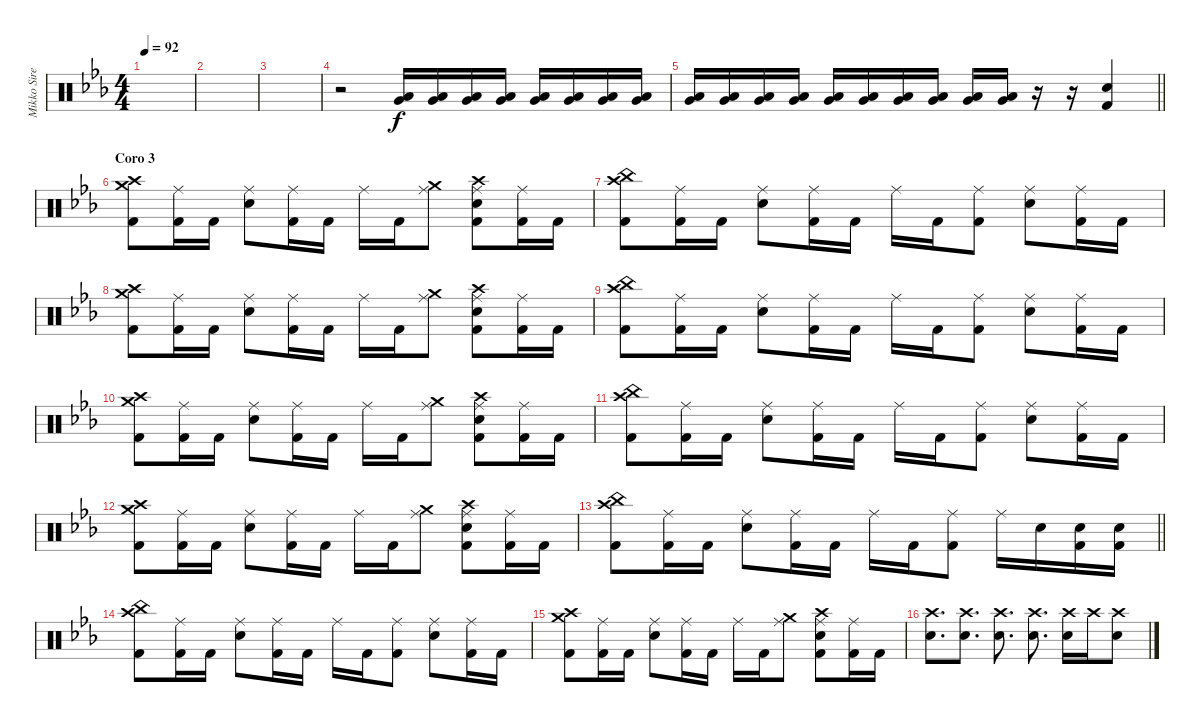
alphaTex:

\track ("Mikko Siren" "Mikko Sire") {instrument percussion}
\staff {score}
\articulation defaults
\ts (4 4)
\tempo 92
\clef neutral
\ks cminor
|
|
|
r.2 ("Very Low Tom (hit)" "Low Floor Tom (hit)").16{volume 9} ("Very Low Tom (hit)" "Low Floor Tom (hit)").16{volume 13} ("Very Low Tom (hit)" "Low Floor Tom (hit)").16 ("Very Low Tom (hit)" "Low Floor Tom (hit)").16 ("Very Low Tom (hit)" "Low Floor Tom (hit)").16 ("Very Low Tom (hit)" "Low Floor Tom (hit)").16 ("Very Low Tom (hit)" "Low Floor Tom (hit)").16 ("Very Low Tom (hit)" "Low Floor Tom (hit)").16 |
\barLineRight lightlight
("Very Low Tom (hit)" "Low Floor Tom (hit)").16 ("Very Low Tom (hit)" "Low Floor Tom (hit)").16 ("Very Low Tom (hit)" "Low Floor Tom (hit)").16 ("Very Low Tom (hit)" "Low Floor Tom (hit)").16 ("Very Low Tom (hit)" "Low Floor Tom (hit)").16 ("Very Low Tom (hit)" "Low Floor Tom (hit)").16 ("Very Low Tom (hit)" "Low Floor Tom (hit)").16 ("Very Low Tom (hit)" "Low Floor Tom (hit)").16 ("Very Low Tom (hit)" "Low Floor Tom (hit)").16 ("Very Low Tom (hit)" "Low Floor Tom (hit)").16 r.16 r.16 ("Snare (hit) 2" "Kick (hit) 2").4 |
\section ("" "Coro 3")
("Crash high (hit)" "Crash medium (hit)" "Kick (hit) 2").8 ("Ride (middle)" "Kick (hit) 2").16 "Kick (hit) 2".16 ("Ride (middle)" "Snare (hit) 2").8 ("Ride (middle)" "Kick (hit) 2").16 "Kick (hit) 2".16 "Ride (middle)".16 "Kick (hit) 2".16 ("Ride (middle)" "Crash medium (hit)").8 ("Ride (middle)" "Crash high (hit)" "Snare (hit) 2" "Kick (hit) 2").8 ("Ride (middle)" "Kick (hit) 2").16 "Kick (hit) 2".16 |
("Crash high (hit)" "China (hit)" "Kick (hit) 2").8 ("Ride (middle)" "Kick (hit) 2").16 "Kick (hit) 2".16 ("Ride (middle)" "Snare (hit) 2").8 ("Ride (middle)" "Kick (hit) 2").16 "Kick (hit) 2".16 "Ride (middle)".16 "Kick (hit) 2".16 ("Ride (middle)" "Kick (hit) 2").8 ("Ride (middle)" "Snare (hit) 2").8 ("Ride (middle)" "Kick (hit) 2").16 "Kick (hit) 2".16 |
("Crash high (hit)" "Crash medium (hit)" "Kick (hit) 2").8 ("Ride (middle)" "Kick (hit) 2").16 "Kick (hit) 2".16 ("Ride (middle)" "Snare (hit) 2").8 ("Ride (middle)" "Kick (hit) 2").16 "Kick (hit) 2".16 "Ride (middle)".16 "Kick (hit) 2".16 ("Ride (middle)" "Crash medium (hit)").8 ("Ride (middle)" "Crash high (hit)" "Snare (hit) 2" "Kick (hit) 2").8 ("Ride (middle)" "Kick (hit) 2").16 "Kick (hit) 2".16 |
("Crash high (hit)" "China (hit)" "Kick (hit) 2").8 ("Ride (middle)" "Kick (hit) 2").16 "Kick (hit) 2".16 ("Ride (middle)" "Snare (hit) 2").8 ("Ride (middle)" "Kick (hit) 2").16 "Kick (hit) 2".16 "Ride (middle)".16 "Kick (hit) 2".16 ("Ride (middle)" "Kick (hit) 2").8 ("Ride (middle)" "Snare (hit) 2").8 ("Ride (middle)" "Kick (hit) 2").16 "Kick (hit) 2".16 |
("Crash high (hit)" "Crash medium (hit)" "Kick (hit) 2").8 ("Ride (middle)" "Kick (hit) 2").16 "Kick (hit) 2".16 ("Ride (middle)" "Snare (hit) 2").8 ("Ride (middle)" "Kick (hit) 2").16 "Kick (hit) 2".16 "Ride (middle)".16 "Kick (hit) 2".16 ("Ride (middle)" "Crash medium (hit)").8 ("Ride (middle)" "Crash high (hit)" "Snare (hit) 2" "Kick (hit) 2").8 ("Ride (middle)" "Kick (hit) 2").16 "Kick (hit) 2".16 |
("Crash high (hit)" "China (hit)" "Kick (hit) 2").8 ("Ride (middle)" "Kick (hit) 2").16 "Kick (hit) 2".16 ("Ride (middle)" "Snare (hit) 2").8 ("Ride (middle)" "Kick (hit) 2").16 "Kick (hit) 2".16 "Ride (middle)".16 "Kick (hit) 2".16 ("Ride (middle)" "Kick (hit) 2").8 ("Ride (middle)" "Snare (hit) 2").8 ("Ride (middle)" "Kick (hit) 2").16 "Kick (hit) 2".16 |
("Crash high (hit)" "Crash medium (hit)" "Kick (hit) 2").8 ("Ride (middle)" "Kick (hit) 2").16 "Kick (hit) 2".16 ("Ride (middle)" "Snare (hit) 2").8 ("Ride (middle)" "Kick (hit) 2").16 "Kick (hit) 2".16 "Ride (middle)".16 "Kick (hit) 2".16 ("Ride (middle)" "Crash medium (hit)").8 ("Ride (middle)" "Crash high (hit)" "Snare (hit) 2" "Kick (hit) 2").8 ("Ride (middle)" "Kick (hit) 2").16 "Kick (hit) 2".16 |
\barLineRight lightlight
("Crash high (hit)" "China (hit)" "Kick (hit) 2").8 ("Ride (middle)" "Kick (hit) 2").16 "Kick (hit) 2".16 ("Ride (middle)" "Snare (hit) 2").8 ("Ride (middle)" "Kick (hit) 2").16 "Kick (hit) 2".16 "Ride (middle)".16 "Kick (hit) 2".16 ("Ride (middle)" "Kick (hit) 2").8 "Ride (middle)".16 "Snare (hit) 2".16 ("Snare (hit) 2" "Kick (hit) 2").16 ("Snare (hit) 2" "Kick (hit) 2").16 |
("Crash high (hit)" "China (hit)" "Kick (hit) 2").8 ("Ride (middle)" "Kick (hit) 2").16 "Kick (hit) 2".16 ("Ride (middle)" "Snare (hit) 2").8 ("Ride (middle)" "Kick (hit) 2").16 "Kick (hit) 2".16 "Ride (middle)".16 "Kick (hit) 2".16 ("Ride (middle)" "Kick (hit) 2").8 ("Ride (middle)" "Snare (hit) 2").8 ("Ride (middle)" "Kick (hit) 2").16 "Kick (hit) 2".16 |
("Crash high (hit)" "Crash medium (hit)" "Kick (hit) 2").8 ("Ride (middle)" "Kick (hit) 2").16 "Kick (hit) 2".16 ("Ride (middle)" "Snare (hit) 2").8 ("Ride (middle)" "Kick (hit) 2").16 "Kick (hit) 2".16 "Ride (middle)".16 "Kick (hit) 2".16 ("Ride (middle)" "Crash medium (hit)").8 ("Ride (middle)" "Crash high (hit)" "Snare (hit) 2" "Kick (hit) 2").8 ("Ride (middle)" "Kick (hit) 2").16 "Kick (hit) 2".16 |
("Crash high (hit)" "Snare (hit) 2").8{d} ("Crash high (hit)" "Snare (hit) 2").8{d} ("Crash high (hit)" "Snare (hit) 2").8{d} ("Crash high (hit)" "Snare (hit) 2").8{d} ("Crash high (hit)" "Snare (hit) 2").16 "Crash high (hit)".16 ("Crash high (hit)" "Snare (hit) 2").8
